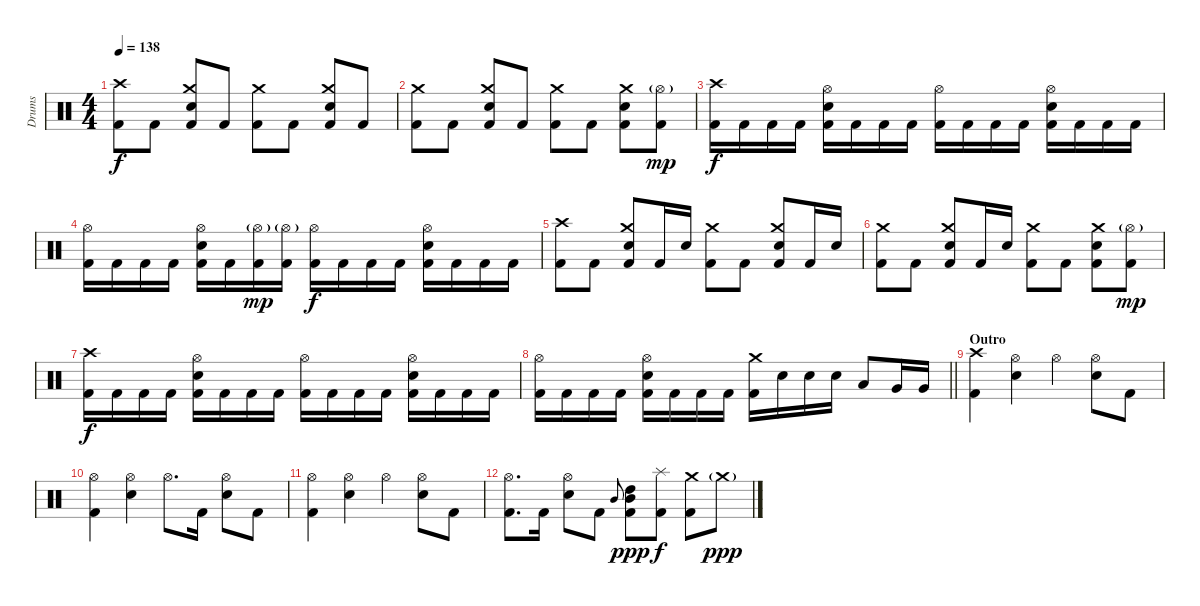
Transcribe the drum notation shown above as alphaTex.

\track ("Drums" "Drums") {instrument percussion}
\staff {score}
\articulation defaults
\ts (4 4)
\tempo 138
\clef neutral
\ks c
("Crash high (hit)" "Kick (hit) 2").8{dy f} "Kick (hit) 2".8 ("Crash medium (hit)" "Electric Snare (hit)" "Kick (hit) 2").8 "Kick (hit) 2".8 ("Crash medium (hit)" "Kick (hit) 2").8 "Kick (hit) 2".8 ("Crash medium (hit)" "Electric Snare (hit)" "Kick (hit) 2").8 "Kick (hit) 2".8 |
("Crash medium (hit)" "Kick (hit) 2").8 "Kick (hit) 2".8 ("Crash medium (hit)" "Electric Snare (hit)" "Kick (hit) 2").8 "Kick (hit) 2".8 ("Crash medium (hit)" "Kick (hit) 2").8 "Kick (hit) 2".8 ("Crash medium (hit)" "Electric Snare (hit)" "Kick (hit) 2").8 ("Hi-Hat (open)"{g} "Kick (hit) 2").8{dy mp} |
("Crash high (hit)" "Kick (hit) 2").16{dy f} "Kick (hit) 2".16 "Kick (hit) 2".16 "Kick (hit) 2".16 ("Hi-Hat (open)" "Electric Snare (hit)" "Kick (hit) 2").16 "Kick (hit) 2".16 "Kick (hit) 2".16 "Kick (hit) 2".16 ("Hi-Hat (open)" "Kick (hit) 2").16 "Kick (hit) 2".16 "Kick (hit) 2".16 "Kick (hit) 2".16 ("Hi-Hat (open)" "Electric Snare (hit)" "Kick (hit) 2").16 "Kick (hit) 2".16 "Kick (hit) 2".16 "Kick (hit) 2".16 |
("Hi-Hat (open)" "Kick (hit) 2").16 "Kick (hit) 2".16 "Kick (hit) 2".16 "Kick (hit) 2".16 ("Hi-Hat (open)" "Electric Snare (hit)" "Kick (hit) 2").16 "Kick (hit) 2".16 ("Hi-Hat (open)"{g} "Kick (hit) 2").16{dy mp} ("Hi-Hat (open)"{g} "Kick (hit) 2").16 ("Hi-Hat (open)" "Kick (hit) 2").16{dy f} "Kick (hit) 2".16 "Kick (hit) 2".16 "Kick (hit) 2".16 ("Hi-Hat (open)" "Electric Snare (hit)" "Kick (hit) 2").16 "Kick (hit) 2".16 "Kick (hit) 2".16 "Kick (hit) 2".16 |
("Crash high (hit)" "Kick (hit) 2").8 "Kick (hit) 2".8 ("Crash medium (hit)" "Electric Snare (hit)" "Kick (hit) 2").8 "Kick (hit) 2".16 "Electric Snare (hit)".16 ("Crash medium (hit)" "Kick (hit) 2").8 "Kick (hit) 2".8 ("Crash medium (hit)" "Electric Snare (hit)" "Kick (hit) 2").8 "Kick (hit) 2".16 "Electric Snare (hit)".16 |
("Crash medium (hit)" "Kick (hit) 2").8 "Kick (hit) 2".8 ("Crash medium (hit)" "Electric Snare (hit)" "Kick (hit) 2").8 "Kick (hit) 2".16 "Electric Snare (hit)".16 ("Crash medium (hit)" "Kick (hit) 2").8 "Kick (hit) 2".8 ("Crash medium (hit)" "Electric Snare (hit)" "Kick (hit) 2").8 ("Hi-Hat (open)"{g} "Kick (hit) 2").8{dy mp} |
("Crash high (hit)" "Kick (hit) 2").16{dy f} "Kick (hit) 2".16 "Kick (hit) 2".16 "Kick (hit) 2".16 ("Hi-Hat (open)" "Electric Snare (hit)" "Kick (hit) 2").16 "Kick (hit) 2".16 "Kick (hit) 2".16 "Kick (hit) 2".16 ("Hi-Hat (open)" "Kick (hit) 2").16 "Kick (hit) 2".16 "Kick (hit) 2".16 "Kick (hit) 2".16 ("Hi-Hat (open)" "Electric Snare (hit)" "Kick (hit) 2").16 "Kick (hit) 2".16 "Kick (hit) 2".16 "Kick (hit) 2".16 |
\barLineRight lightlight
("Hi-Hat (open)" "Kick (hit) 2").16 "Kick (hit) 2".16 "Kick (hit) 2".16 "Kick (hit) 2".16 ("Hi-Hat (open)" "Electric Snare (hit)" "Kick (hit) 2").16 "Kick (hit) 2".16 "Kick (hit) 2".16 "Kick (hit) 2".16 ("Crash medium (hit)" "Kick (hit) 2").16 "Electric Snare (hit)".16 "Electric Snare (hit)".16 "Electric Snare (hit)".16 "Low Tom (hit)".8 "Very Low Tom (hit)".16 "Very Low Tom (hit)".16 |
\section ("" "Outro")
("Crash high (hit)" "Kick (hit) 2").4 ("Hi-Hat (open)" "Electric Snare (hit)").4 "Hi-Hat (open)".4 ("Hi-Hat (open)" "Electric Snare (hit)").8 "Kick (hit) 2".8 |
("Hi-Hat (open)" "Kick (hit) 2").4 ("Hi-Hat (open)" "Electric Snare (hit)").4 "Hi-Hat (open)".8{d} "Kick (hit) 2".16 ("Hi-Hat (open)" "Electric Snare (hit)").8 "Kick (hit) 2".8 |
("Hi-Hat (open)" "Kick (hit) 2").4 ("Hi-Hat (open)" "Electric Snare (hit)").4 "Hi-Hat (open)".4 ("Hi-Hat (open)" "Electric Snare (hit)").8 "Kick (hit) 2".8 |
("Hi-Hat (open)" "Kick (hit) 2").8{d} "Kick (hit) 2".16 ("Hi-Hat (open)" "Electric Snare (hit)").8 "Kick (hit) 2".8 "Mid Tom (hit)".8{gr onbeat} ("High Tom (hit)" "Mid Tom (hit)" "Kick (hit) 2").8{dy ppp} ("Splash (hit)" "Kick (hit) 2").8{dy f} ("Crash medium (hit)" "Kick (hit) 2").8 "Crash medium (hit)"{g}.8{dy ppp}
